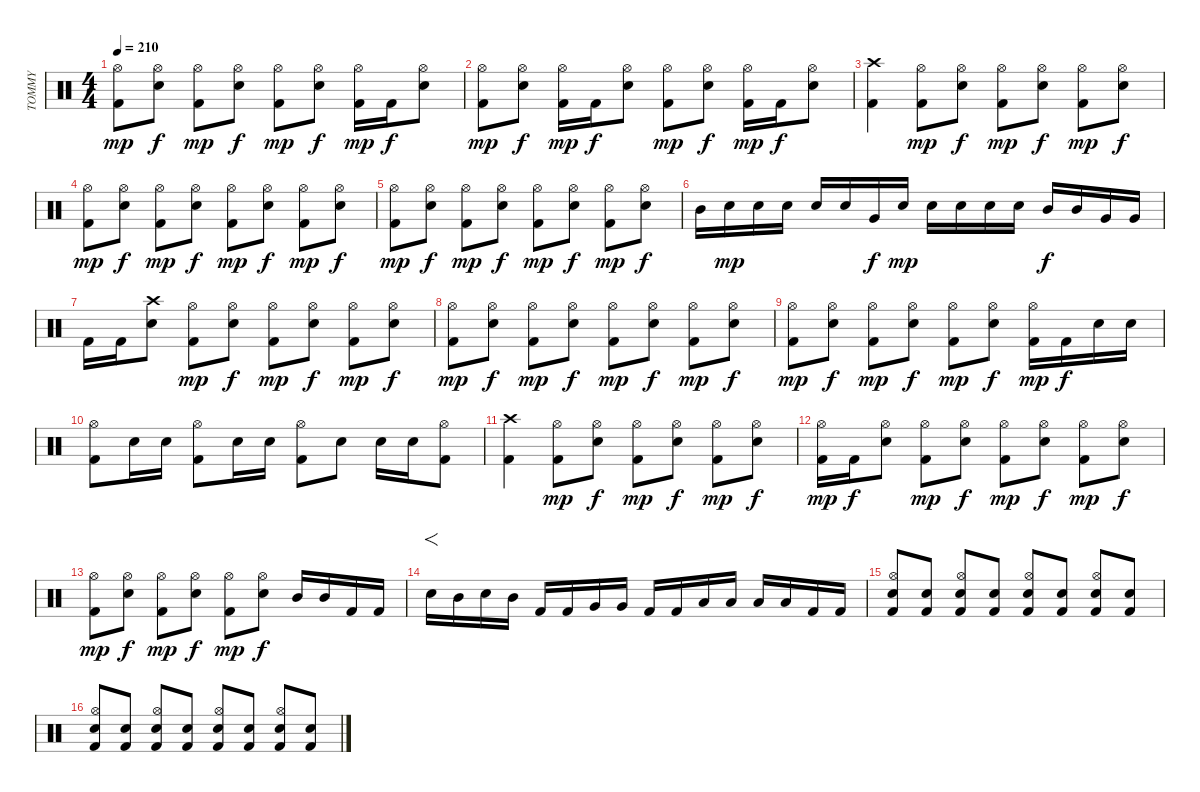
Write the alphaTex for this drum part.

\track ("TOMMY" "TOMMY") {instrument percussion}
\staff {score}
\articulation defaults
\ts (4 4)
\tempo 210
\clef neutral
\ks c
("Kick (hit) 2" "Hi-Hat (open)").8{dy mp} ("Snare (hit) 2" "Hi-Hat (open)").8{dy f} ("Kick (hit) 2" "Hi-Hat (open)").8{dy mp} ("Snare (hit) 2" "Hi-Hat (open)").8{dy f} ("Kick (hit) 2" "Hi-Hat (open)").8{dy mp} ("Snare (hit) 2" "Hi-Hat (open)").8{dy f} ("Kick (hit) 2" "Hi-Hat (open)").16{dy mp} "Kick (hit) 2".16{dy f} ("Snare (hit) 2" "Hi-Hat (open)").8 |
("Kick (hit) 2" "Hi-Hat (open)").8{dy mp} ("Snare (hit) 2" "Hi-Hat (open)").8{dy f} ("Kick (hit) 2" "Hi-Hat (open)").16{dy mp} "Kick (hit) 2".16{dy f} ("Snare (hit) 2" "Hi-Hat (open)").8 ("Kick (hit) 2" "Hi-Hat (open)").8{dy mp} ("Snare (hit) 2" "Hi-Hat (open)").8{dy f} ("Kick (hit) 2" "Hi-Hat (open)").16{dy mp} "Kick (hit) 2".16{dy f} ("Snare (hit) 2" "Hi-Hat (open)").8 |
("Kick (hit) 2" "Crash high (hit)").4 ("Kick (hit) 2" "Hi-Hat (open)").8{dy mp} ("Snare (hit) 2" "Hi-Hat (open)").8{dy f} ("Kick (hit) 2" "Hi-Hat (open)").8{dy mp} ("Snare (hit) 2" "Hi-Hat (open)").8{dy f} ("Kick (hit) 2" "Hi-Hat (open)").8{dy mp} ("Snare (hit) 2" "Hi-Hat (open)").8{dy f} |
("Kick (hit) 2" "Hi-Hat (open)").8{dy mp} ("Snare (hit) 2" "Hi-Hat (open)").8{dy f} ("Kick (hit) 2" "Hi-Hat (open)").8{dy mp} ("Snare (hit) 2" "Hi-Hat (open)").8{dy f} ("Kick (hit) 2" "Hi-Hat (open)").8{dy mp} ("Snare (hit) 2" "Hi-Hat (open)").8{dy f} ("Kick (hit) 2" "Hi-Hat (open)").8{dy mp} ("Snare (hit) 2" "Hi-Hat (open)").8{dy f} |
("Kick (hit) 2" "Hi-Hat (open)").8{dy mp} ("Snare (hit) 2" "Hi-Hat (open)").8{dy f} ("Kick (hit) 2" "Hi-Hat (open)").8{dy mp} ("Snare (hit) 2" "Hi-Hat (open)").8{dy f} ("Kick (hit) 2" "Hi-Hat (open)").8{dy mp} ("Snare (hit) 2" "Hi-Hat (open)").8{dy f} ("Kick (hit) 2" "Hi-Hat (open)").8{dy mp} ("Snare (hit) 2" "Hi-Hat (open)").8{dy f} |
"Mid Tom (hit)".16 "Snare (hit) 2".16{dy mp} "Snare (hit) 2".16 "Snare (hit) 2".16 "Snare (hit) 2".16 "Snare (hit) 2".16 "Very Low Tom (hit)".16{dy f} "Snare (hit) 2".16{dy mp} "Snare (hit) 2".16 "Snare (hit) 2".16 "Snare (hit) 2".16 "Snare (hit) 2".16 "Mid Tom (hit)".16{dy f} "Mid Tom (hit)".16 "Very Low Tom (hit)".16 "Very Low Tom (hit)".16 |
"Kick (hit) 2".16 "Kick (hit) 2".16 ("Snare (hit) 2" "Crash high (hit)").8 ("Kick (hit) 2" "Hi-Hat (open)").8{dy mp} ("Snare (hit) 2" "Hi-Hat (open)").8{dy f} ("Kick (hit) 2" "Hi-Hat (open)").8{dy mp} ("Snare (hit) 2" "Hi-Hat (open)").8{dy f} ("Kick (hit) 2" "Hi-Hat (open)").8{dy mp} ("Snare (hit) 2" "Hi-Hat (open)").8{dy f} |
("Kick (hit) 2" "Hi-Hat (open)").8{dy mp} ("Snare (hit) 2" "Hi-Hat (open)").8{dy f} ("Kick (hit) 2" "Hi-Hat (open)").8{dy mp} ("Snare (hit) 2" "Hi-Hat (open)").8{dy f} ("Kick (hit) 2" "Hi-Hat (open)").8{dy mp} ("Snare (hit) 2" "Hi-Hat (open)").8{dy f} ("Kick (hit) 2" "Hi-Hat (open)").8{dy mp} ("Snare (hit) 2" "Hi-Hat (open)").8{dy f} |
("Kick (hit) 2" "Hi-Hat (open)").8{dy mp} ("Snare (hit) 2" "Hi-Hat (open)").8{dy f} ("Kick (hit) 2" "Hi-Hat (open)").8{dy mp} ("Snare (hit) 2" "Hi-Hat (open)").8{dy f} ("Kick (hit) 2" "Hi-Hat (open)").8{dy mp} ("Snare (hit) 2" "Hi-Hat (open)").8{dy f} ("Kick (hit) 2" "Hi-Hat (open)").16{dy mp} "Kick (hit) 2".16{dy f} "Snare (hit) 2".16 "Snare (hit) 2".16 |
("Kick (hit) 2" "Hi-Hat (open)").8 "Snare (hit) 2".16 "Snare (hit) 2".16 ("Kick (hit) 2" "Hi-Hat (open)").8 "Snare (hit) 2".16 "Snare (hit) 2".16 ("Kick (hit) 2" "Hi-Hat (open)").8 "Snare (hit) 2".8 "Snare (hit) 2".16 "Snare (hit) 2".16 ("Kick (hit) 2" "Hi-Hat (open)").8 |
("Kick (hit) 2" "Crash high (hit)").4 ("Kick (hit) 2" "Hi-Hat (open)").8{dy mp} ("Snare (hit) 2" "Hi-Hat (open)").8{dy f} ("Kick (hit) 2" "Hi-Hat (open)").8{dy mp} ("Snare (hit) 2" "Hi-Hat (open)").8{dy f} ("Kick (hit) 2" "Hi-Hat (open)").8{dy mp} ("Snare (hit) 2" "Hi-Hat (open)").8{dy f} |
("Kick (hit) 2" "Hi-Hat (open)").16{dy mp} "Kick (hit) 2".16{dy f} ("Snare (hit) 2" "Hi-Hat (open)").8 ("Kick (hit) 2" "Hi-Hat (open)").8{dy mp} ("Snare (hit) 2" "Hi-Hat (open)").8{dy f} ("Kick (hit) 2" "Hi-Hat (open)").8{dy mp} ("Snare (hit) 2" "Hi-Hat (open)").8{dy f} ("Kick (hit) 2" "Hi-Hat (open)").8{dy mp} ("Snare (hit) 2" "Hi-Hat (open)").8{dy f} |
("Kick (hit) 2" "Hi-Hat (open)").8{dy mp} ("Snare (hit) 2" "Hi-Hat (open)").8{dy f} ("Kick (hit) 2" "Hi-Hat (open)").8{dy mp} ("Snare (hit) 2" "Hi-Hat (open)").8{dy f} ("Kick (hit) 2" "Hi-Hat (open)").8{dy mp} ("Snare (hit) 2" "Hi-Hat (open)").8{dy f} "Mid Tom (hit)".16 "Mid Tom (hit)".16 "Kick (hit) 2".16 "Kick (hit) 2".16 |
"Snare (hit) 2".16{f} "Mid Tom (hit)".16 "Snare (hit) 2".16 "Mid Tom (hit)".16 "Kick (hit) 2".16 "Kick (hit) 2".16 "Very Low Tom (hit)".16 "Very Low Tom (hit)".16 "Kick (hit) 2".16 "Kick (hit) 2".16 "Low Floor Tom (hit)".16 "Low Floor Tom (hit)".16 "Low Floor Tom (hit)".16 "Low Floor Tom (hit)".16 "Kick (hit) 2".16 "Kick (hit) 2".16 |
("Snare (hit) 2" "Kick (hit) 2" "Hi-Hat (open)").8 ("Snare (hit) 2" "Kick (hit) 2").8 ("Snare (hit) 2" "Kick (hit) 2" "Hi-Hat (open)").8 ("Snare (hit) 2" "Kick (hit) 2").8 ("Snare (hit) 2" "Kick (hit) 2" "Hi-Hat (open)").8 ("Snare (hit) 2" "Kick (hit) 2").8 ("Snare (hit) 2" "Kick (hit) 2" "Hi-Hat (open)").8 ("Snare (hit) 2" "Kick (hit) 2").8 |
("Snare (hit) 2" "Kick (hit) 2" "Hi-Hat (open)").8 ("Snare (hit) 2" "Kick (hit) 2").8 ("Snare (hit) 2" "Kick (hit) 2" "Hi-Hat (open)").8 ("Snare (hit) 2" "Kick (hit) 2").8 ("Snare (hit) 2" "Kick (hit) 2" "Hi-Hat (open)").8 ("Snare (hit) 2" "Kick (hit) 2").8 ("Snare (hit) 2" "Kick (hit) 2" "Hi-Hat (open)").8 ("Snare (hit) 2" "Kick (hit) 2").8
